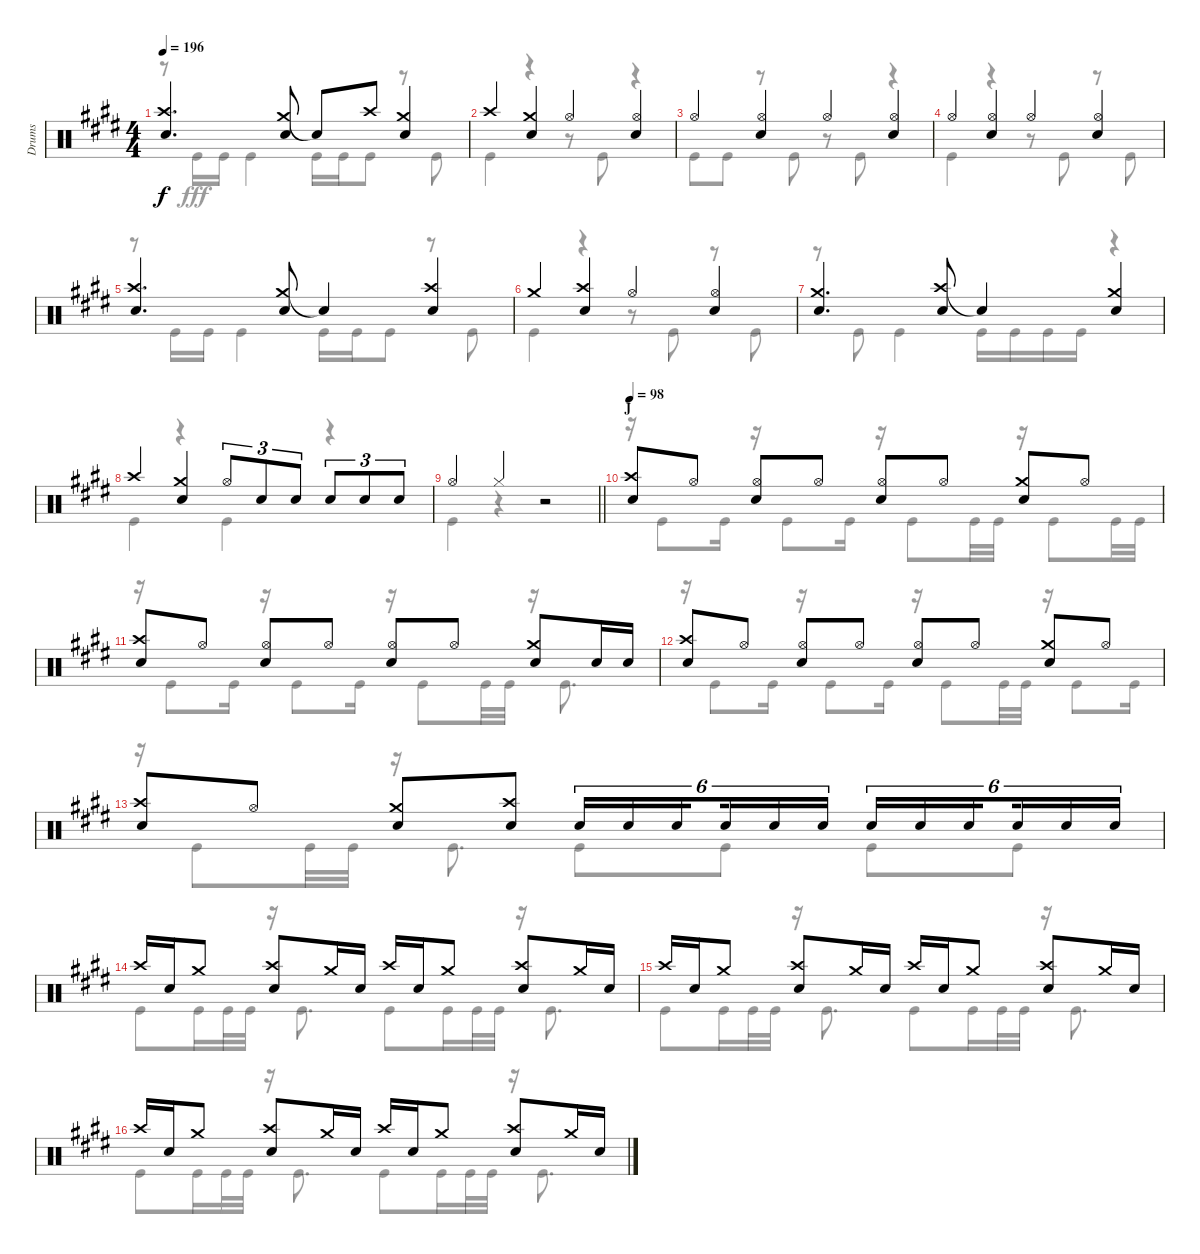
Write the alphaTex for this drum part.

\track ("Drums" "Drums") {instrument percussion}
\staff {score}
\articulation defaults
\voice
\ts (4 4)
\tempo 196
\clef neutral
\ks e
("Crash high (hit)" "Snare (hit) 2").4{d dy f} ("Crash medium (hit)" "Snare (hit) 2").8 "Snare (hit)"{t}.8 "Crash high (hit)".8 ("Crash medium (hit)" "Snare (hit) 2").4 |
"Crash high (hit)".4 ("Crash medium (hit)" "Snare (hit) 2").4 "Hi-Hat (open)".4 ("Hi-Hat (open)" "Snare (hit) 2").4 |
"Hi-Hat (open)".4 ("Hi-Hat (open)" "Snare (hit) 2").4 "Hi-Hat (open)".4 ("Hi-Hat (open)" "Snare (hit) 2").4 |
"Hi-Hat (open)".4 ("Hi-Hat (open)" "Snare (hit) 2").4 "Hi-Hat (open)".4 ("Hi-Hat (open)" "Snare (hit) 2").4 |
("Crash high (hit)" "Snare (hit) 2").4{d} ("Crash medium (hit)" "Snare (hit) 2").8 "Snare (hit)"{t}.4 ("Crash high (hit)" "Snare (hit) 2").4 |
"Crash medium (hit)".4 ("Crash high (hit)" "Snare (hit) 2").4 "Hi-Hat (open)".4 ("Hi-Hat (open)" "Snare (hit) 2").4 |
("Crash medium (hit)" "Snare (hit) 2").4{d} ("Crash high (hit)" "Snare (hit) 2").8 "Snare (hit)"{t}.4 ("Crash medium (hit)" "Snare (hit) 2").4 |
"Crash high (hit)".4 ("Crash medium (hit)" "Snare (hit) 2").4 "Hi-Hat (open)".8{tu (3 2)} "Snare (hit) 2".8{tu (3 2)} "Snare (hit) 2".8{tu (3 2)} "Snare (hit) 2".8{tu (3 2)} "Snare (hit) 2".8{tu (3 2)} "Snare (hit) 2".8{tu (3 2)} |
\barLineRight lightlight "Hi-Hat (open)".4 "Hi-Hat (closed)".4
r.2 |
\section ("" "J")
\tempo 98
("Crash high (hit)" "Snare (hit) 2").8 "Hi-Hat (open)".8 ("Hi-Hat (open)" "Snare (hit) 2").8 "Hi-Hat (open)".8 ("Hi-Hat (open)" "Snare (hit) 2").8 "Hi-Hat (open)".8 ("Crash medium (hit)" "Snare (hit) 2").8 "Hi-Hat (open)".8 |
("Crash high (hit)" "Snare (hit) 2").8 "Hi-Hat (open)".8 ("Hi-Hat (open)" "Snare (hit) 2").8 "Hi-Hat (open)".8 ("Hi-Hat (open)" "Snare (hit) 2").8 "Hi-Hat (open)".8 ("Crash medium (hit)" "Snare (hit) 2").8 "Snare (hit) 2".16 "Snare (hit) 2".16 |
("Crash high (hit)" "Snare (hit) 2").8 "Hi-Hat (open)".8 ("Hi-Hat (open)" "Snare (hit) 2").8 "Hi-Hat (open)".8 ("Hi-Hat (open)" "Snare (hit) 2").8 "Hi-Hat (open)".8 ("Crash medium (hit)" "Snare (hit) 2").8 "Hi-Hat (open)".8 |
("Crash high (hit)" "Snare (hit) 2").8 "Hi-Hat (open)".8 ("Crash medium (hit)" "Snare (hit) 2").8 ("Crash high (hit)" "Snare (hit) 2").8 "Snare (hit) 2".16{tu (6 4)} "Snare (hit) 2".16{tu (6 4)} "Snare (hit) 2".16{tu (6 4) beam splitsecondary} "Snare (hit) 2".16{tu (6 4)} "Snare (hit) 2".16{tu (6 4)} "Snare (hit) 2".16{tu (6 4)} "Snare (hit) 2".16{tu (6 4)} "Snare (hit) 2".16{tu (6 4)} "Snare (hit) 2".16{tu (6 4) beam splitsecondary} "Snare (hit) 2".16{tu (6 4)} "Snare (hit) 2".16{tu (6 4)} "Snare (hit) 2".16{tu (6 4)} |
"Crash high (hit)".16 "Snare (hit) 2".16 "Crash medium (hit)".8 ("Crash high (hit)" "Snare (hit) 2").8 "Crash medium (hit)".16 "Snare (hit) 2".16 "Crash high (hit)".16 "Snare (hit) 2".16 "Crash medium (hit)".8 ("Crash high (hit)" "Snare (hit) 2").8 "Crash medium (hit)".16 "Snare (hit) 2".16 |
"Crash high (hit)".16 "Snare (hit) 2".16 "Crash medium (hit)".8 ("Crash high (hit)" "Snare (hit) 2").8 "Crash medium (hit)".16 "Snare (hit) 2".16 "Crash high (hit)".16 "Snare (hit) 2".16 "Crash medium (hit)".8 ("Crash high (hit)" "Snare (hit) 2").8 "Crash medium (hit)".16 "Snare (hit) 2".16 |
"Crash high (hit)".16 "Snare (hit) 2".16 "Crash medium (hit)".8 ("Crash high (hit)" "Snare (hit) 2").8 "Crash medium (hit)".16 "Snare (hit) 2".16 "Crash high (hit)".16 "Snare (hit) 2".16 "Crash medium (hit)".8 ("Crash high (hit)" "Snare (hit) 2").8 "Crash medium (hit)".16 "Snare (hit) 2".16
\voice
\clef neutral
\ottava regular
\simile none
\ks e
r.8{dy fff} "Kick (hit)".16 "Kick (hit)".16 "Kick (hit)".4 "Kick (hit)".16 "Kick (hit)".16 "Kick (hit)".8 r.8 "Kick (hit)".8 |
"Kick (hit)".4 r.4 r.8 "Kick (hit)".8 r.4 |
"Kick (hit)".8 "Kick (hit)".8 r.8 "Kick (hit)".8 r.8 "Kick (hit)".8 r.4 |
"Kick (hit)".4 r.4 r.8 "Kick (hit)".8 r.8 "Kick (hit)".8 |
r.8 "Kick (hit)".16 "Kick (hit)".16 "Kick (hit)".4 "Kick (hit)".16 "Kick (hit)".16 "Kick (hit)".8 r.8 "Kick (hit)".8 |
"Kick (hit)".4 r.4 r.8 "Kick (hit)".8 r.8 "Kick (hit)".8 |
r.8 "Kick (hit)".8 "Kick (hit)".4 "Kick (hit)".16 "Kick (hit)".16 "Kick (hit)".16 "Kick (hit)".16 r.4 |
"Kick (hit)".4 r.4 "Kick (hit)".4 r.4 |
\barLineRight lightlight "Kick (hit)".4
r.4 r.2 |
r.16 "Kick (hit)".8 "Kick (hit)".16 r.16 "Kick (hit)".8 "Kick (hit)".16 r.16 "Kick (hit)".8 "Kick (hit)".32 "Kick (hit)".32 r.16 "Kick (hit)".8 "Kick (hit)".32 "Kick (hit)".32 |
r.16 "Kick (hit)".8 "Kick (hit)".16 r.16 "Kick (hit)".8 "Kick (hit)".16 r.16 "Kick (hit)".8 "Kick (hit)".32 "Kick (hit)".32 r.16 "Kick (hit)".8{d} |
r.16 "Kick (hit)".8 "Kick (hit)".16 r.16 "Kick (hit)".8 "Kick (hit)".16 r.16 "Kick (hit)".8 "Kick (hit)".32 "Kick (hit)".32 r.16 "Kick (hit)".8 "Kick (hit)".16 |
r.16 "Kick (hit)".8 "Kick (hit)".32 "Kick (hit)".32 r.16 "Kick (hit)".8{d} "Kick (hit)".8 "Kick (hit)".8 "Kick (hit)".8 "Kick (hit)".8 |
"Kick (hit)".8 "Kick (hit)".16 "Kick (hit)".32 "Kick (hit)".32 r.16 "Kick (hit)".8{d} "Kick (hit)".8 "Kick (hit)".16 "Kick (hit)".32 "Kick (hit)".32 r.16 "Kick (hit)".8{d} |
"Kick (hit)".8 "Kick (hit)".16 "Kick (hit)".32 "Kick (hit)".32 r.16 "Kick (hit)".8{d} "Kick (hit)".8 "Kick (hit)".16 "Kick (hit)".32 "Kick (hit)".32 r.16 "Kick (hit)".8{d} |
"Kick (hit)".8 "Kick (hit)".16 "Kick (hit)".32 "Kick (hit)".32 r.16 "Kick (hit)".8{d} "Kick (hit)".8 "Kick (hit)".16 "Kick (hit)".32 "Kick (hit)".32 r.16 "Kick (hit)".8{d}
